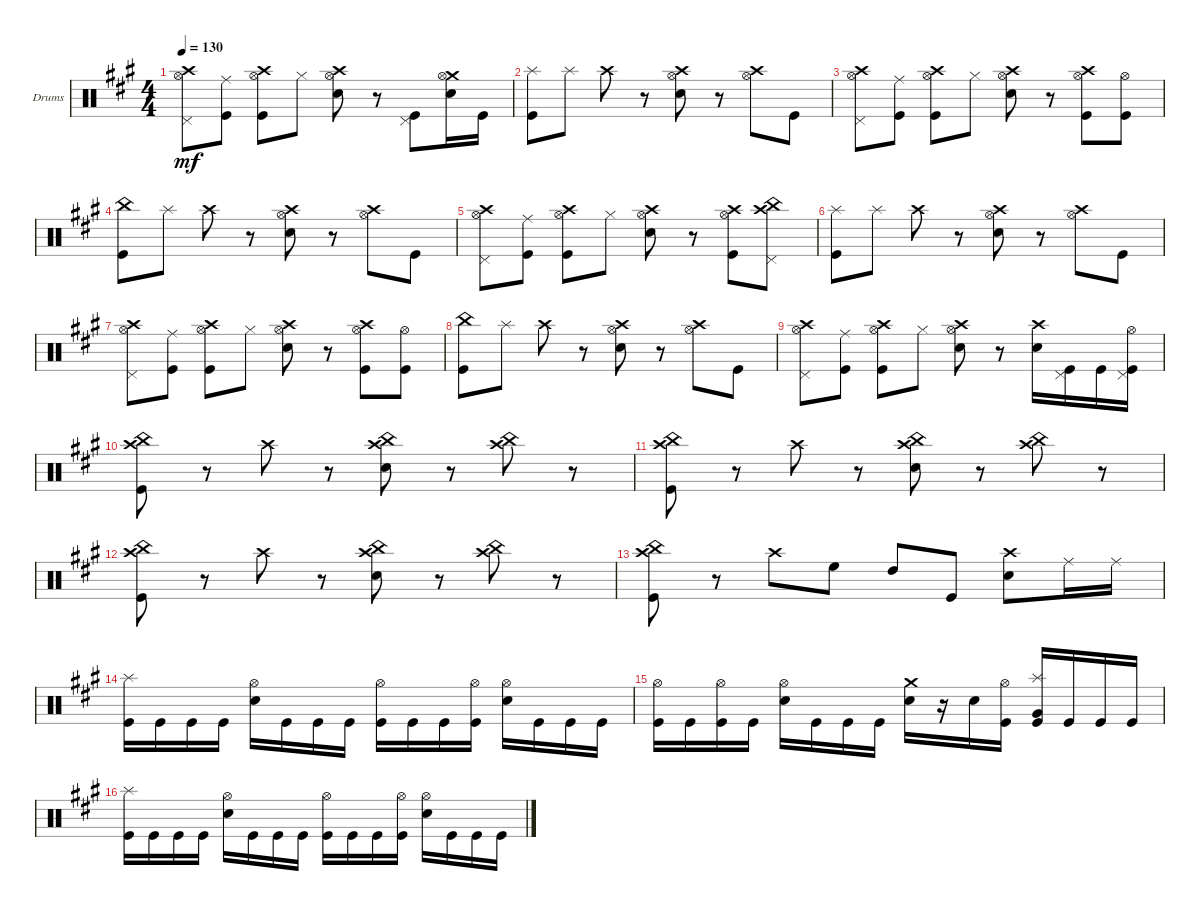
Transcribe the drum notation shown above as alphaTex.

\defaultSystemsLayout 4
\bracketExtendMode groupsimilarinstruments
\firstSystemTrackNameOrientation horizontal
\otherSystemsTrackNameOrientation horizontal
\track ("Bateria" "Drums") {instrument percussion}
\staff {score}
\articulation defaults
\ts (4 4)
\tempo 130
\clef neutral
\ks a
("Pedal Hi-Hat (hit)" "Hi-Hat (open)" "Crash high (hit)").8{dy mf} ("Kick (hit)" "Ride (middle)").8 ("Kick (hit)" "Hi-Hat (open)" "Crash high (hit)").8 "Hi-Hat (closed)".8 ("Snare (hit) 2" "Hi-Hat (open)" "Crash high (hit)").8 r.8 ("Kick (hit)" "Pedal Hi-Hat (hit)").8 ("Snare (hit) 2" "Crash medium (hit)" "Hi-Hat (open)").16 "Kick (hit)".16 |
("Kick (hit)" "Splash (hit)").8 "Splash (hit)".8 "Crash high (hit)".8 r.8 ("Snare (hit) 2" "Hi-Hat (open)" "Crash high (hit)").8 r.8 ("Hi-Hat (open)" "Crash high (hit)").8 "Kick (hit)".8 |
("Pedal Hi-Hat (hit)" "Hi-Hat (open)" "Crash high (hit)").8 ("Kick (hit)" "Ride (middle)").8 ("Kick (hit)" "Hi-Hat (open)" "Crash high (hit)").8 "Hi-Hat (closed)".8 ("Snare (hit) 2" "Hi-Hat (open)" "Crash high (hit)").8 r.8 ("Kick (hit)" "Hi-Hat (open)" "Crash high (hit)").8 ("Kick (hit)" "Hi-Hat (open)").8 |
("Kick (hit)" "China (hit)").8 "Splash (hit)".8 "Crash high (hit)".8 r.8 ("Snare (hit) 2" "Hi-Hat (open)" "Crash high (hit)").8 r.8 ("Hi-Hat (open)" "Crash high (hit)").8 "Kick (hit)".8 |
("Pedal Hi-Hat (hit)" "Hi-Hat (open)" "Crash high (hit)").8 ("Kick (hit)" "Ride (middle)").8 ("Kick (hit)" "Hi-Hat (open)" "Crash high (hit)").8 "Hi-Hat (closed)".8 ("Snare (hit) 2" "Hi-Hat (open)" "Crash high (hit)").8 r.8 ("Crash high (hit)" "Hi-Hat (open)" "Kick (hit)").8 ("Crash high (hit)" "China (hit)" "Pedal Hi-Hat (hit)").8 |
("Kick (hit)" "Splash (hit)").8 "Splash (hit)".8 "Crash high (hit)".8 r.8 ("Snare (hit) 2" "Hi-Hat (open)" "Crash high (hit)").8 r.8 ("Hi-Hat (open)" "Crash high (hit)").8 "Kick (hit)".8 |
("Pedal Hi-Hat (hit)" "Hi-Hat (open)" "Crash high (hit)").8 ("Kick (hit)" "Ride (middle)").8 ("Kick (hit)" "Hi-Hat (open)" "Crash high (hit)").8 "Hi-Hat (closed)".8 ("Snare (hit) 2" "Hi-Hat (open)" "Crash high (hit)").8 r.8 ("Kick (hit)" "Hi-Hat (open)" "Crash high (hit)").8 ("Kick (hit)" "Hi-Hat (open)").8 |
("Kick (hit)" "China (hit)").8 "Splash (hit)".8 "Crash high (hit)".8 r.8 ("Snare (hit) 2" "Hi-Hat (open)" "Crash high (hit)").8 r.8 ("Hi-Hat (open)" "Crash high (hit)").8 "Kick (hit)".8 |
("Pedal Hi-Hat (hit)" "Hi-Hat (open)" "Crash high (hit)").8 ("Kick (hit)" "Ride (middle)").8 ("Kick (hit)" "Hi-Hat (open)" "Crash high (hit)").8 "Hi-Hat (closed)".8 ("Snare (hit) 2" "Hi-Hat (open)" "Crash high (hit)").8 r.8 ("Crash high (hit)" "Snare (hit) 2").16 ("Kick (hit)" "Pedal Hi-Hat (hit)").16 "Kick (hit)".16 ("Hi-Hat (open)" "Kick (hit)" "Pedal Hi-Hat (hit)").16 |
("China (hit)" "Kick (hit)" "Crash high (hit)").8 r.8 "Crash high (hit)".8 r.8 ("China (hit)" "Crash high (hit)" "Snare (hit) 2").8 r.8 ("China (hit)" "Crash high (hit)").8 r.8 |
("China (hit)" "Kick (hit)" "Crash high (hit)").8 r.8 "Crash high (hit)".8 r.8 ("China (hit)" "Crash high (hit)" "Snare (hit) 2").8 r.8 ("China (hit)" "Crash high (hit)").8 r.8 |
("China (hit)" "Kick (hit)" "Crash high (hit)").8 r.8 "Crash high (hit)".8 r.8 ("China (hit)" "Crash high (hit)" "Snare (hit) 2").8 r.8 ("China (hit)" "Crash high (hit)").8 r.8 |
("China (hit)" "Kick (hit)" "Crash high (hit)").8 r.8 "Crash high (hit)".8 "High Floor Tom (hit)".8 "High Tom (hit)".8 "Kick (hit)".8 ("Snare (hit) 2" "Crash high (hit)").8 "Ride (middle)".16 "Ride (middle)".16 |
("Kick (hit)" "Splash (hit)").16 "Kick (hit)".16 "Kick (hit)".16 "Kick (hit)".16 ("Snare (hit) 2" "Hi-Hat (open)").16 "Kick (hit)".16 "Kick (hit)".16 "Kick (hit)".16 ("Kick (hit)" "Hi-Hat (open)").16 "Kick (hit)".16 "Kick (hit)".16 ("Kick (hit)" "Hi-Hat (open)").16 ("Snare (hit) 2" "Hi-Hat (open)").16 "Kick (hit)".16 "Kick (hit)".16 "Kick (hit)".16 |
("Kick (hit)" "Hi-Hat (open)").16 "Kick (hit)".16 ("Kick (hit)" "Hi-Hat (open)").16 "Kick (hit)".16 ("Snare (hit) 2" "Hi-Hat (open)").16 "Kick (hit)".16 "Kick (hit)".16 "Kick (hit)".16 ("Snare (hit) 2" "Crash medium (hit)").16 r.16 "Snare (hit) 2".16 ("Kick (hit)" "Hi-Hat (open)").16 ("Very Low Tom (hit)" "Splash (hit)" "Kick (hit)").16 "Kick (hit)".16 "Kick (hit)".16 "Kick (hit)".16 |
("Kick (hit)" "Splash (hit)").16 "Kick (hit)".16 "Kick (hit)".16 "Kick (hit)".16 ("Snare (hit) 2" "Hi-Hat (open)").16 "Kick (hit)".16 "Kick (hit)".16 "Kick (hit)".16 ("Kick (hit)" "Hi-Hat (open)").16 "Kick (hit)".16 "Kick (hit)".16 ("Kick (hit)" "Hi-Hat (open)").16 ("Snare (hit) 2" "Hi-Hat (open)").16 "Kick (hit)".16 "Kick (hit)".16 "Kick (hit)".16
